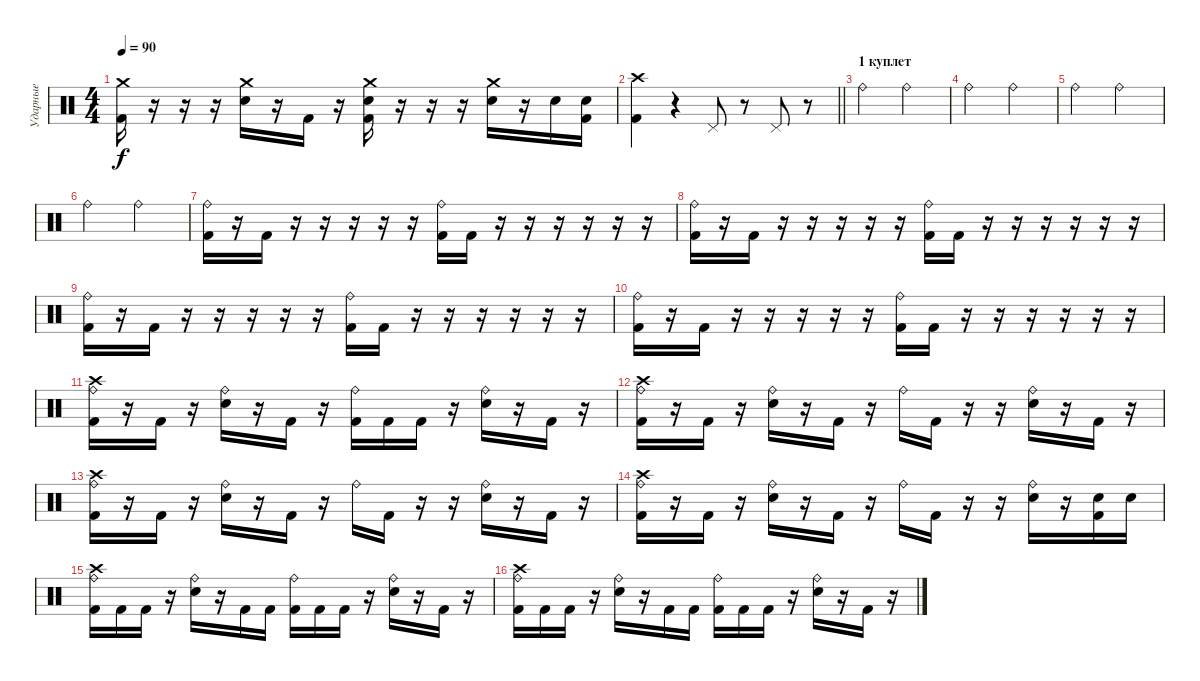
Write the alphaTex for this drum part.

\track ("Ударные" "Ударные") {instrument percussion}
\staff {score}
\articulation defaults
\ts (4 4)
\tempo 90
\clef neutral
\ks c
("Crash medium (hit)" "Kick (hit) 2").16{dy f} r.16 r.16 r.16 ("Crash medium (hit)" "Snare (hit) 2").16 r.16 "Kick (hit) 2".16 r.16 ("Crash medium (hit)" "Snare (hit) 2" "Kick (hit) 2").16 r.16 r.16 r.16 ("Crash medium (hit)" "Snare (hit) 2").16 r.16 "Snare (hit) 2".16 ("Snare (hit) 2" "Kick (hit) 2").16 |
\barLineRight lightlight
("Crash high (hit)" "Kick (hit) 2").4 r.4 "Pedal Hi-Hat (hit)".8 r.8 "Pedal Hi-Hat (hit)".8 r.8 |
\section ("" "1 куплет")
"Ride (bell)".2 "Ride (bell)".2 |
"Ride (bell)".2 "Ride (bell)".2 |
"Ride (bell)".2 "Ride (bell)".2 |
"Ride (bell)".2 "Ride (bell)".2 |
("Ride (bell)" "Kick (hit) 2").16 r.16 "Kick (hit) 2".16 r.16 r.16 r.16 r.16 r.16 ("Ride (bell)" "Kick (hit) 2").16 "Kick (hit) 2".16 r.16 r.16 r.16 r.16 r.16 r.16 |
("Ride (bell)" "Kick (hit) 2").16 r.16 "Kick (hit) 2".16 r.16 r.16 r.16 r.16 r.16 ("Ride (bell)" "Kick (hit) 2").16 "Kick (hit) 2".16 r.16 r.16 r.16 r.16 r.16 r.16 |
("Ride (bell)" "Kick (hit) 2").16 r.16 "Kick (hit) 2".16 r.16 r.16 r.16 r.16 r.16 ("Ride (bell)" "Kick (hit) 2").16 "Kick (hit) 2".16 r.16 r.16 r.16 r.16 r.16 r.16 |
("Ride (bell)" "Kick (hit) 2").16 r.16 "Kick (hit) 2".16 r.16 r.16 r.16 r.16 r.16 ("Ride (bell)" "Kick (hit) 2").16 "Kick (hit) 2".16 r.16 r.16 r.16 r.16 r.16 r.16 |
("Ride (bell)" "Crash high (hit)" "Kick (hit) 2").16 r.16 "Kick (hit) 2".16 r.16 ("Ride (bell)" "Snare (hit) 2").16 r.16 "Kick (hit) 2".16 r.16 ("Ride (bell)" "Kick (hit) 2").16 "Kick (hit) 2".16 "Kick (hit) 2".16 r.16 ("Ride (bell)" "Snare (hit) 2").16 r.16 "Kick (hit) 2".16 r.16 |
("Ride (bell)" "Crash high (hit)" "Kick (hit) 2").16 r.16 "Kick (hit) 2".16 r.16 ("Ride (bell)" "Snare (hit) 2").16 r.16 "Kick (hit) 2".16 r.16 "Ride (bell)".16 "Kick (hit) 2".16 r.16 r.16 ("Ride (bell)" "Snare (hit) 2").16 r.16 "Kick (hit) 2".16 r.16 |
("Ride (bell)" "Crash high (hit)" "Kick (hit) 2").16 r.16 "Kick (hit) 2".16 r.16 ("Ride (bell)" "Snare (hit) 2").16 r.16 "Kick (hit) 2".16 r.16 "Ride (bell)".16 "Kick (hit) 2".16 r.16 r.16 ("Ride (bell)" "Snare (hit) 2").16 r.16 "Kick (hit) 2".16 r.16 |
("Ride (bell)" "Crash high (hit)" "Kick (hit) 2").16 r.16 "Kick (hit) 2".16 r.16 ("Ride (bell)" "Snare (hit) 2").16 r.16 "Kick (hit) 2".16 r.16 "Ride (bell)".16 "Kick (hit) 2".16 r.16 r.16 ("Ride (bell)" "Snare (hit) 2").16 r.16 ("Snare (hit) 2" "Kick (hit) 2").16 "Snare (hit) 2".16 |
("Ride (bell)" "Crash high (hit)" "Kick (hit) 2").16 "Kick (hit) 2".16 "Kick (hit) 2".16 r.16 ("Ride (bell)" "Snare (hit) 2").16 r.16 "Kick (hit) 2".16 "Kick (hit) 2".16 ("Ride (bell)" "Kick (hit) 2").16 "Kick (hit) 2".16 "Kick (hit) 2".16 r.16 ("Ride (bell)" "Snare (hit) 2").16 r.16 "Kick (hit) 2".16 r.16 |
("Ride (bell)" "Crash high (hit)" "Kick (hit) 2").16 "Kick (hit) 2".16 "Kick (hit) 2".16 r.16 ("Ride (bell)" "Snare (hit) 2").16 r.16 "Kick (hit) 2".16 "Kick (hit) 2".16 ("Ride (bell)" "Kick (hit) 2").16 "Kick (hit) 2".16 "Kick (hit) 2".16 r.16 ("Ride (bell)" "Snare (hit) 2").16 r.16 "Kick (hit) 2".16 r.16
